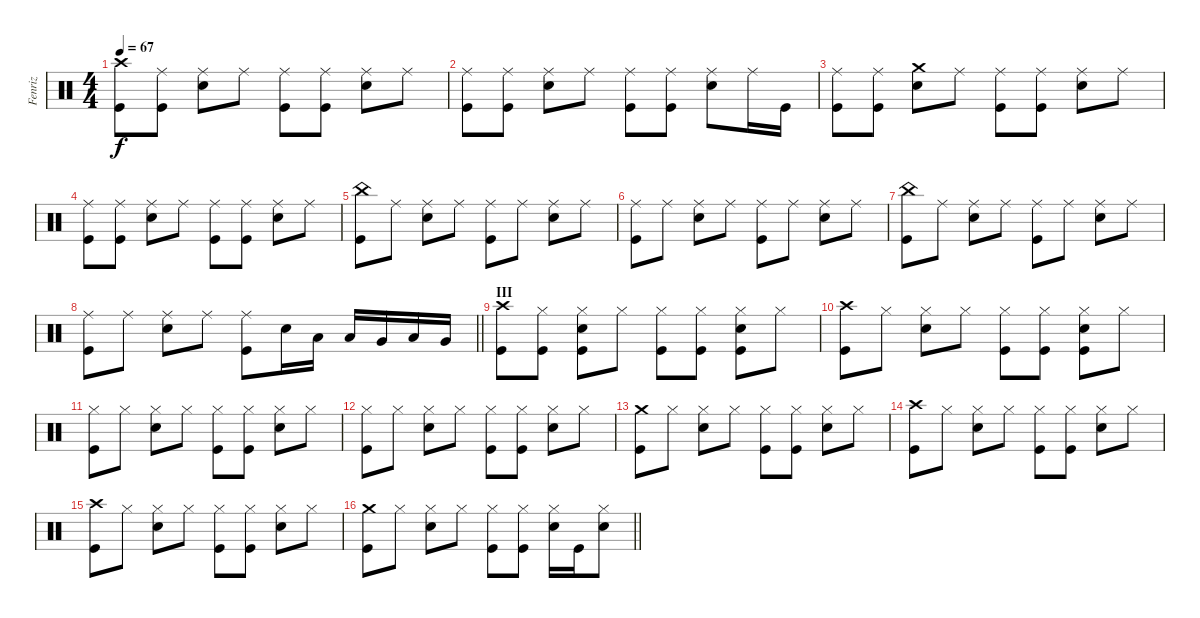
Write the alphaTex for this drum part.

\track ("Fenriz" "Fenriz") {instrument percussion}
\staff {score}
\articulation defaults
\ts (4 4)
\tempo 67
\clef neutral
\ks c
("Kick (hit)" "Crash high (hit)").8{dy f} ("Kick (hit)" "Ride (middle)").8 ("Snare (hit) 2" "Ride (middle)").8 "Ride (middle)".8 ("Kick (hit)" "Ride (middle)").8 ("Kick (hit)" "Ride (middle)").8 ("Snare (hit) 2" "Ride (middle)").8 "Ride (middle)".8 |
("Kick (hit)" "Ride (middle)").8 ("Kick (hit)" "Ride (middle)").8 ("Snare (hit) 2" "Ride (middle)").8 "Ride (middle)".8 ("Kick (hit)" "Ride (middle)").8 ("Kick (hit)" "Ride (middle)").8 ("Snare (hit) 2" "Ride (middle)").8 "Ride (middle)".16 "Kick (hit)".16 |
("Kick (hit)" "Ride (middle)").8 ("Kick (hit)" "Ride (middle)").8 ("Snare (hit) 2" "Crash medium (hit)").8 "Ride (middle)".8 ("Kick (hit)" "Ride (middle)").8 ("Kick (hit)" "Ride (middle)").8 ("Snare (hit) 2" "Ride (middle)").8 "Ride (middle)".8 |
("Kick (hit)" "Ride (middle)").8 ("Kick (hit)" "Ride (middle)").8 ("Snare (hit) 2" "Ride (middle)").8 "Ride (middle)".8 ("Kick (hit)" "Ride (middle)").8 ("Kick (hit)" "Ride (middle)").8 ("Snare (hit) 2" "Ride (middle)").8 "Ride (middle)".8 |
("Kick (hit)" "China (hit)").8 "Ride (middle)".8 ("Snare (hit) 2" "Ride (middle)").8 "Ride (middle)".8 ("Kick (hit)" "Ride (middle)").8 "Ride (middle)".8 ("Snare (hit) 2" "Ride (middle)").8 "Ride (middle)".8 |
("Kick (hit)" "Ride (middle)").8 "Ride (middle)".8 ("Snare (hit) 2" "Ride (middle)").8 "Ride (middle)".8 ("Kick (hit)" "Ride (middle)").8 "Ride (middle)".8 ("Snare (hit) 2" "Ride (middle)").8 "Ride (middle)".8 |
("Kick (hit)" "China (hit)").8 "Ride (middle)".8 ("Snare (hit) 2" "Ride (middle)").8 "Ride (middle)".8 ("Kick (hit)" "Ride (middle)").8 "Ride (middle)".8 ("Snare (hit) 2" "Ride (middle)").8 "Ride (middle)".8 |
\barLineRight lightlight
("Kick (hit)" "Ride (middle)").8 "Ride (middle)".8 ("Snare (hit) 2" "Ride (middle)").8 "Ride (middle)".8 ("Kick (hit)" "Ride (middle)").8 "Snare (hit) 2".16 "Low Tom (hit)".16 "Low Tom (hit)".16 "Very Low Tom (hit)".16 "Low Floor Tom (hit)".16 "Very Low Tom (hit)".16 |
\section ("" "III")
("Kick (hit)" "Crash high (hit)").8 ("Kick (hit)" "Hi-Hat (closed)").8 ("Kick (hit)" "Snare (hit) 2" "Hi-Hat (closed)").8 "Hi-Hat (closed)".8 ("Kick (hit)" "Hi-Hat (closed)").8 ("Kick (hit)" "Hi-Hat (closed)").8 ("Kick (hit)" "Snare (hit) 2" "Hi-Hat (closed)").8 "Hi-Hat (closed)".8 |
("Kick (hit)" "Crash high (hit)").8 "Hi-Hat (closed)".8 ("Snare (hit) 2" "Hi-Hat (closed)").8 "Hi-Hat (closed)".8 ("Kick (hit)" "Hi-Hat (closed)").8 ("Kick (hit)" "Hi-Hat (closed)").8 ("Kick (hit)" "Snare (hit) 2" "Hi-Hat (closed)").8 "Hi-Hat (closed)".8 |
("Kick (hit)" "Hi-Hat (closed)").8 "Hi-Hat (closed)".8 ("Snare (hit) 2" "Hi-Hat (closed)").8 "Hi-Hat (closed)".8 ("Kick (hit)" "Hi-Hat (closed)").8 ("Kick (hit)" "Hi-Hat (closed)").8 ("Snare (hit) 2" "Hi-Hat (closed)").8 "Hi-Hat (closed)".8 |
("Kick (hit)" "Hi-Hat (closed)").8 "Hi-Hat (closed)".8 ("Snare (hit) 2" "Hi-Hat (closed)").8 "Hi-Hat (closed)".8 ("Kick (hit)" "Hi-Hat (closed)").8 ("Kick (hit)" "Hi-Hat (closed)").8 ("Snare (hit) 2" "Hi-Hat (closed)").8 "Hi-Hat (closed)".8 |
("Kick (hit)" "Crash medium (hit)").8 "Hi-Hat (closed)".8 ("Snare (hit) 2" "Hi-Hat (closed)").8 "Hi-Hat (closed)".8 ("Kick (hit)" "Hi-Hat (closed)").8 ("Kick (hit)" "Hi-Hat (closed)").8 ("Snare (hit) 2" "Hi-Hat (closed)").8 "Hi-Hat (closed)".8 |
("Kick (hit)" "Crash high (hit)").8 "Hi-Hat (closed)".8 ("Snare (hit) 2" "Hi-Hat (closed)").8 "Hi-Hat (closed)".8 ("Kick (hit)" "Hi-Hat (closed)").8 ("Kick (hit)" "Hi-Hat (closed)").8 ("Snare (hit) 2" "Hi-Hat (closed)").8 "Hi-Hat (closed)".8 |
("Kick (hit)" "Crash high (hit)").8 "Hi-Hat (closed)".8 ("Snare (hit) 2" "Hi-Hat (closed)").8 "Hi-Hat (closed)".8 ("Kick (hit)" "Hi-Hat (closed)").8 ("Kick (hit)" "Hi-Hat (closed)").8 ("Snare (hit) 2" "Hi-Hat (closed)").8 "Hi-Hat (closed)".8 |
\barLineRight lightlight
("Kick (hit)" "Crash medium (hit)").8 "Hi-Hat (closed)".8 ("Snare (hit) 2" "Hi-Hat (closed)").8 "Hi-Hat (closed)".8 ("Kick (hit)" "Hi-Hat (closed)").8 ("Kick (hit)" "Hi-Hat (closed)").8 ("Snare (hit) 2" "Hi-Hat (closed)").16 "Kick (hit)".16 ("Snare (hit) 2" "Hi-Hat (closed)").8
